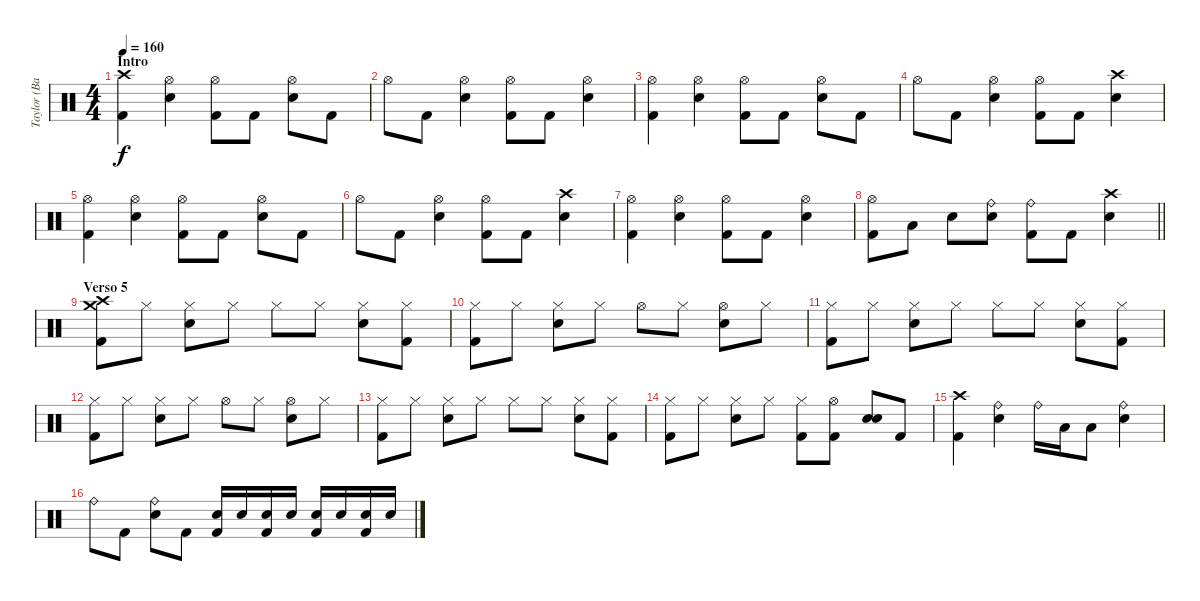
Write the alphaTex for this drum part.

\track ("Taylor (Batería)" "Taylor (Ba") {instrument percussion}
\staff {score}
\articulation defaults
\ts (4 4)
\section ("" "Intro")
\tempo 160
\clef neutral
\ks c
("Crash high (hit)" "Kick (hit) 2").4{dy f} ("Hi-Hat (open)" "Electric Snare (hit)").4 ("Hi-Hat (open)" "Kick (hit) 2").8 "Kick (hit) 2".8 ("Hi-Hat (open)" "Electric Snare (hit)").8 "Kick (hit) 2".8 |
"Hi-Hat (open)".8 "Kick (hit) 2".8 ("Hi-Hat (open)" "Electric Snare (hit)").4 ("Hi-Hat (open)" "Kick (hit) 2").8 "Kick (hit) 2".8 ("Hi-Hat (open)" "Electric Snare (hit)").4 |
("Hi-Hat (open)" "Kick (hit) 2").4 ("Hi-Hat (open)" "Electric Snare (hit)").4 ("Hi-Hat (open)" "Kick (hit) 2").8 "Kick (hit) 2".8 ("Hi-Hat (open)" "Electric Snare (hit)").8 "Kick (hit) 2".8 |
"Hi-Hat (open)".8 "Kick (hit) 2".8 ("Hi-Hat (open)" "Electric Snare (hit)").4 ("Hi-Hat (open)" "Kick (hit) 2").8 "Kick (hit) 2".8 ("Crash high (hit)" "Electric Snare (hit)").4 |
("Hi-Hat (open)" "Kick (hit) 2").4 ("Hi-Hat (open)" "Electric Snare (hit)").4 ("Hi-Hat (open)" "Kick (hit) 2").8 "Kick (hit) 2".8 ("Hi-Hat (open)" "Electric Snare (hit)").8 "Kick (hit) 2".8 |
"Hi-Hat (open)".8 "Kick (hit) 2".8 ("Hi-Hat (open)" "Electric Snare (hit)").4 ("Hi-Hat (open)" "Kick (hit) 2").8 "Kick (hit) 2".8 ("Crash high (hit)" "Electric Snare (hit)").4 |
("Hi-Hat (open)" "Kick (hit) 2").4 ("Hi-Hat (open)" "Electric Snare (hit)").4 ("Hi-Hat (open)" "Kick (hit) 2").8 "Kick (hit) 2".8 ("Hi-Hat (open)" "Electric Snare (hit)").4 |
\barLineRight lightlight
("Hi-Hat (open)" "Kick (hit) 2").8 "Low Tom (hit)".8 "Electric Snare (hit)".8 ("Ride (bell)" "Electric Snare (hit)").8 ("Ride (bell)" "Kick (hit) 2").8 "Kick (hit) 2".8 ("Crash high (hit)" "Electric Snare (hit)").4 |
\section ("" "Verso 5")
("Crash high (hit)" "Crash medium (hit)" "Kick (hit) 2").8 "Hi-Hat (closed)".8 ("Hi-Hat (closed)" "Electric Snare (hit)").8 "Hi-Hat (closed)".8 "Hi-Hat (closed)".8 "Hi-Hat (closed)".8 ("Hi-Hat (closed)" "Electric Snare (hit)").8 ("Hi-Hat (closed)" "Kick (hit) 2").8 |
("Hi-Hat (closed)" "Kick (hit) 2").8 "Hi-Hat (closed)".8 ("Hi-Hat (closed)" "Electric Snare (hit)").8 "Hi-Hat (closed)".8 "Hi-Hat (open)".8 "Hi-Hat (closed)".8 ("Hi-Hat (open)" "Electric Snare (hit)").8 "Hi-Hat (closed)".8 |
("Hi-Hat (closed)" "Kick (hit) 2").8 "Hi-Hat (closed)".8 ("Hi-Hat (closed)" "Electric Snare (hit)").8 "Hi-Hat (closed)".8 "Hi-Hat (closed)".8 "Hi-Hat (closed)".8 ("Hi-Hat (closed)" "Electric Snare (hit)").8 ("Hi-Hat (closed)" "Kick (hit) 2").8 |
("Hi-Hat (closed)" "Kick (hit) 2").8 "Hi-Hat (closed)".8 ("Hi-Hat (closed)" "Electric Snare (hit)").8 "Hi-Hat (closed)".8 "Hi-Hat (open)".8 "Hi-Hat (closed)".8 ("Hi-Hat (open)" "Electric Snare (hit)").8 "Hi-Hat (closed)".8 |
("Hi-Hat (closed)" "Kick (hit) 2").8 "Hi-Hat (closed)".8 ("Hi-Hat (closed)" "Electric Snare (hit)").8 "Hi-Hat (closed)".8 "Hi-Hat (closed)".8 "Hi-Hat (closed)".8 ("Hi-Hat (closed)" "Electric Snare (hit)").8 ("Hi-Hat (closed)" "Kick (hit) 2").8 |
("Hi-Hat (closed)" "Kick (hit) 2").8 "Hi-Hat (closed)".8 ("Hi-Hat (closed)" "Electric Snare (hit)").8 "Hi-Hat (closed)".8 ("Hi-Hat (closed)" "Kick (hit) 2").8 ("Hi-Hat (open)" "Kick (hit) 2").8 ("Electric Snare (hit)" "Electric Snare (hit)").8 "Kick (hit) 2".8 |
("Crash high (hit)" "Kick (hit) 2").4 ("Ride (bell)" "Electric Snare (hit)").4 "Ride (bell)".16 "Low Tom (hit)".16 "Low Tom (hit)".8 ("Ride (bell)" "Electric Snare (hit)").4 |
"Ride (bell)".8 "Kick (hit) 2".8 ("Ride (bell)" "Electric Snare (hit)").8 "Kick (hit) 2".8 ("Electric Snare (hit)" "Kick (hit) 2").16 "Electric Snare (hit)".16 ("Electric Snare (hit)" "Kick (hit) 2").16 "Electric Snare (hit)".16 ("Electric Snare (hit)" "Kick (hit) 2").16 "Electric Snare (hit)".16 ("Electric Snare (hit)" "Kick (hit) 2").16 "Electric Snare (hit)".16
